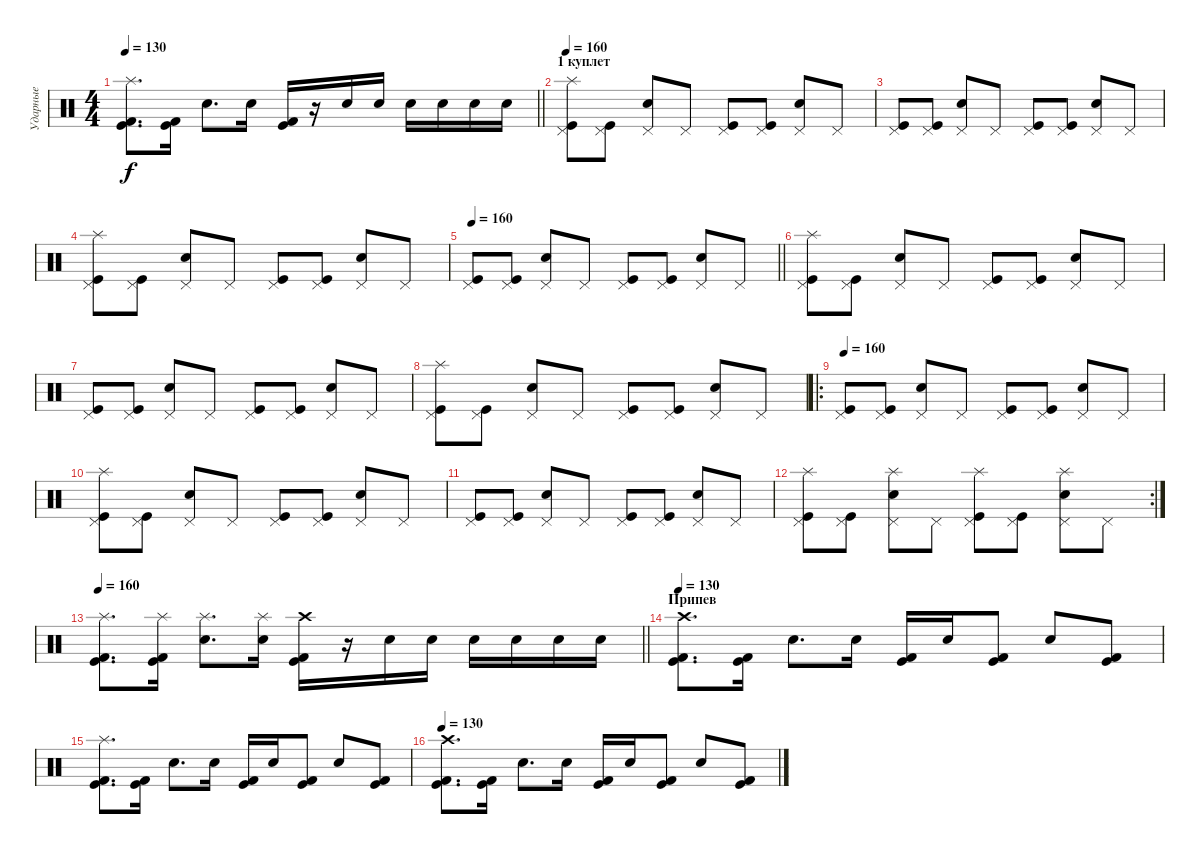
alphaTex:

\track ("Ударные" "Ударные") {solo instrument percussion}
\staff {score}
\articulation defaults
\ts (4 4)
\tempo 130
\clef neutral
\barLineRight lightlight
\ks c
("Splash (hit)" "Kick (hit)" "Kick (hit) 2").8{d dy f} ("Kick (hit)" "Kick (hit) 2").16 "Snare (hit) 2".8{d} "Snare (hit) 2".16 ("Kick (hit)" "Kick (hit) 2").16 r.16 "Snare (hit) 2".16 "Snare (hit) 2".16 "Snare (hit) 2".16 "Snare (hit) 2".16 "Snare (hit) 2".16 "Snare (hit) 2".16 |
\section ("" "1 куплет")
\tempo 160
("Splash (hit)" "Pedal Hi-Hat (hit)" "Kick (hit)").8 ("Pedal Hi-Hat (hit)" "Kick (hit)").8 ("Pedal Hi-Hat (hit)" "Snare (hit) 2").8 "Pedal Hi-Hat (hit)".8 ("Pedal Hi-Hat (hit)" "Kick (hit)").8 ("Pedal Hi-Hat (hit)" "Kick (hit)").8 ("Pedal Hi-Hat (hit)" "Snare (hit) 2").8 "Pedal Hi-Hat (hit)".8 |
("Pedal Hi-Hat (hit)" "Kick (hit)").8 ("Pedal Hi-Hat (hit)" "Kick (hit)").8 ("Pedal Hi-Hat (hit)" "Snare (hit) 2").8 "Pedal Hi-Hat (hit)".8 ("Pedal Hi-Hat (hit)" "Kick (hit)").8 ("Pedal Hi-Hat (hit)" "Kick (hit)").8 ("Pedal Hi-Hat (hit)" "Snare (hit) 2").8 "Pedal Hi-Hat (hit)".8 |
("Splash (hit)" "Pedal Hi-Hat (hit)" "Kick (hit)").8 ("Pedal Hi-Hat (hit)" "Kick (hit)").8 ("Pedal Hi-Hat (hit)" "Snare (hit) 2").8 "Pedal Hi-Hat (hit)".8 ("Pedal Hi-Hat (hit)" "Kick (hit)").8 ("Pedal Hi-Hat (hit)" "Kick (hit)").8 ("Pedal Hi-Hat (hit)" "Snare (hit) 2").8 "Pedal Hi-Hat (hit)".8 |
\tempo 160
\barLineRight lightlight
("Pedal Hi-Hat (hit)" "Kick (hit)").8 ("Pedal Hi-Hat (hit)" "Kick (hit)").8 ("Pedal Hi-Hat (hit)" "Snare (hit) 2").8 "Pedal Hi-Hat (hit)".8 ("Pedal Hi-Hat (hit)" "Kick (hit)").8 ("Pedal Hi-Hat (hit)" "Kick (hit)").8 ("Pedal Hi-Hat (hit)" "Snare (hit) 2").8 "Pedal Hi-Hat (hit)".8 |
("Splash (hit)" "Pedal Hi-Hat (hit)" "Kick (hit)").8 ("Pedal Hi-Hat (hit)" "Kick (hit)").8 ("Pedal Hi-Hat (hit)" "Snare (hit) 2").8 "Pedal Hi-Hat (hit)".8 ("Pedal Hi-Hat (hit)" "Kick (hit)").8 ("Pedal Hi-Hat (hit)" "Kick (hit)").8 ("Pedal Hi-Hat (hit)" "Snare (hit) 2").8 "Pedal Hi-Hat (hit)".8 |
("Pedal Hi-Hat (hit)" "Kick (hit)").8 ("Pedal Hi-Hat (hit)" "Kick (hit)").8 ("Pedal Hi-Hat (hit)" "Snare (hit) 2").8 "Pedal Hi-Hat (hit)".8 ("Pedal Hi-Hat (hit)" "Kick (hit)").8 ("Pedal Hi-Hat (hit)" "Kick (hit)").8 ("Pedal Hi-Hat (hit)" "Snare (hit) 2").8 "Pedal Hi-Hat (hit)".8 |
("Splash (hit)" "Pedal Hi-Hat (hit)" "Kick (hit)").8 ("Pedal Hi-Hat (hit)" "Kick (hit)").8 ("Pedal Hi-Hat (hit)" "Snare (hit) 2").8 "Pedal Hi-Hat (hit)".8 ("Pedal Hi-Hat (hit)" "Kick (hit)").8 ("Pedal Hi-Hat (hit)" "Kick (hit)").8 ("Pedal Hi-Hat (hit)" "Snare (hit) 2").8 "Pedal Hi-Hat (hit)".8 |
\ro
\tempo 160
("Pedal Hi-Hat (hit)" "Kick (hit)").8 ("Pedal Hi-Hat (hit)" "Kick (hit)").8 ("Pedal Hi-Hat (hit)" "Snare (hit) 2").8 "Pedal Hi-Hat (hit)".8 ("Pedal Hi-Hat (hit)" "Kick (hit)").8 ("Pedal Hi-Hat (hit)" "Kick (hit)").8 ("Pedal Hi-Hat (hit)" "Snare (hit) 2").8 "Pedal Hi-Hat (hit)".8 |
("Splash (hit)" "Pedal Hi-Hat (hit)" "Kick (hit)").8 ("Pedal Hi-Hat (hit)" "Kick (hit)").8 ("Pedal Hi-Hat (hit)" "Snare (hit) 2").8 "Pedal Hi-Hat (hit)".8 ("Pedal Hi-Hat (hit)" "Kick (hit)").8 ("Pedal Hi-Hat (hit)" "Kick (hit)").8 ("Pedal Hi-Hat (hit)" "Snare (hit) 2").8 "Pedal Hi-Hat (hit)".8 |
("Pedal Hi-Hat (hit)" "Kick (hit)").8 ("Pedal Hi-Hat (hit)" "Kick (hit)").8 ("Pedal Hi-Hat (hit)" "Snare (hit) 2").8 "Pedal Hi-Hat (hit)".8 ("Pedal Hi-Hat (hit)" "Kick (hit)").8 ("Pedal Hi-Hat (hit)" "Kick (hit)").8 ("Pedal Hi-Hat (hit)" "Snare (hit) 2").8 "Pedal Hi-Hat (hit)".8 |
\rc 2
("Splash (hit)" "Pedal Hi-Hat (hit)" "Kick (hit)").8 ("Pedal Hi-Hat (hit)" "Kick (hit)").8 ("Splash (hit)" "Pedal Hi-Hat (hit)" "Snare (hit) 2").8 "Pedal Hi-Hat (hit)".8 ("Splash (hit)" "Pedal Hi-Hat (hit)" "Kick (hit)").8 ("Pedal Hi-Hat (hit)" "Kick (hit)").8 ("Splash (hit)" "Pedal Hi-Hat (hit)" "Snare (hit) 2").8 "Pedal Hi-Hat (hit)".8 |
\tempo 160
\barLineRight lightlight
("Splash (hit)" "Kick (hit)" "Kick (hit) 2").8{d} ("Splash (hit)" "Kick (hit)" "Kick (hit) 2").16 ("Splash (hit)" "Snare (hit) 2").8{d} ("Splash (hit)" "Snare (hit) 2").16 ("Crash high (hit)" "Kick (hit)" "Kick (hit) 2").16 r.16 "Snare (hit) 2".16 "Snare (hit) 2".16 "Snare (hit) 2".16 "Snare (hit) 2".16 "Snare (hit) 2".16 "Snare (hit) 2".16 |
\section ("" "Припев")
\tempo 130
("Crash high (hit)" "Kick (hit)" "Kick (hit) 2").8{d} ("Kick (hit)" "Kick (hit) 2").16 "Snare (hit) 2".8{d} "Snare (hit) 2".16 ("Kick (hit)" "Kick (hit) 2").16 "Snare (hit) 2".16 ("Kick (hit)" "Kick (hit) 2").8 "Snare (hit) 2".8 ("Kick (hit)" "Kick (hit) 2").8 |
("Splash (hit)" "Kick (hit)" "Kick (hit) 2").8{d} ("Kick (hit)" "Kick (hit) 2").16 "Snare (hit) 2".8{d} "Snare (hit) 2".16 ("Kick (hit)" "Kick (hit) 2").16 "Snare (hit) 2".16 ("Kick (hit)" "Kick (hit) 2").8 "Snare (hit) 2".8 ("Kick (hit)" "Kick (hit) 2").8 |
\tempo 130
("Crash high (hit)" "Kick (hit)" "Kick (hit) 2").8{d} ("Kick (hit)" "Kick (hit) 2").16 "Snare (hit) 2".8{d} "Snare (hit) 2".16 ("Kick (hit)" "Kick (hit) 2").16 "Snare (hit) 2".16 ("Kick (hit)" "Kick (hit) 2").8 "Snare (hit) 2".8 ("Kick (hit)" "Kick (hit) 2").8
